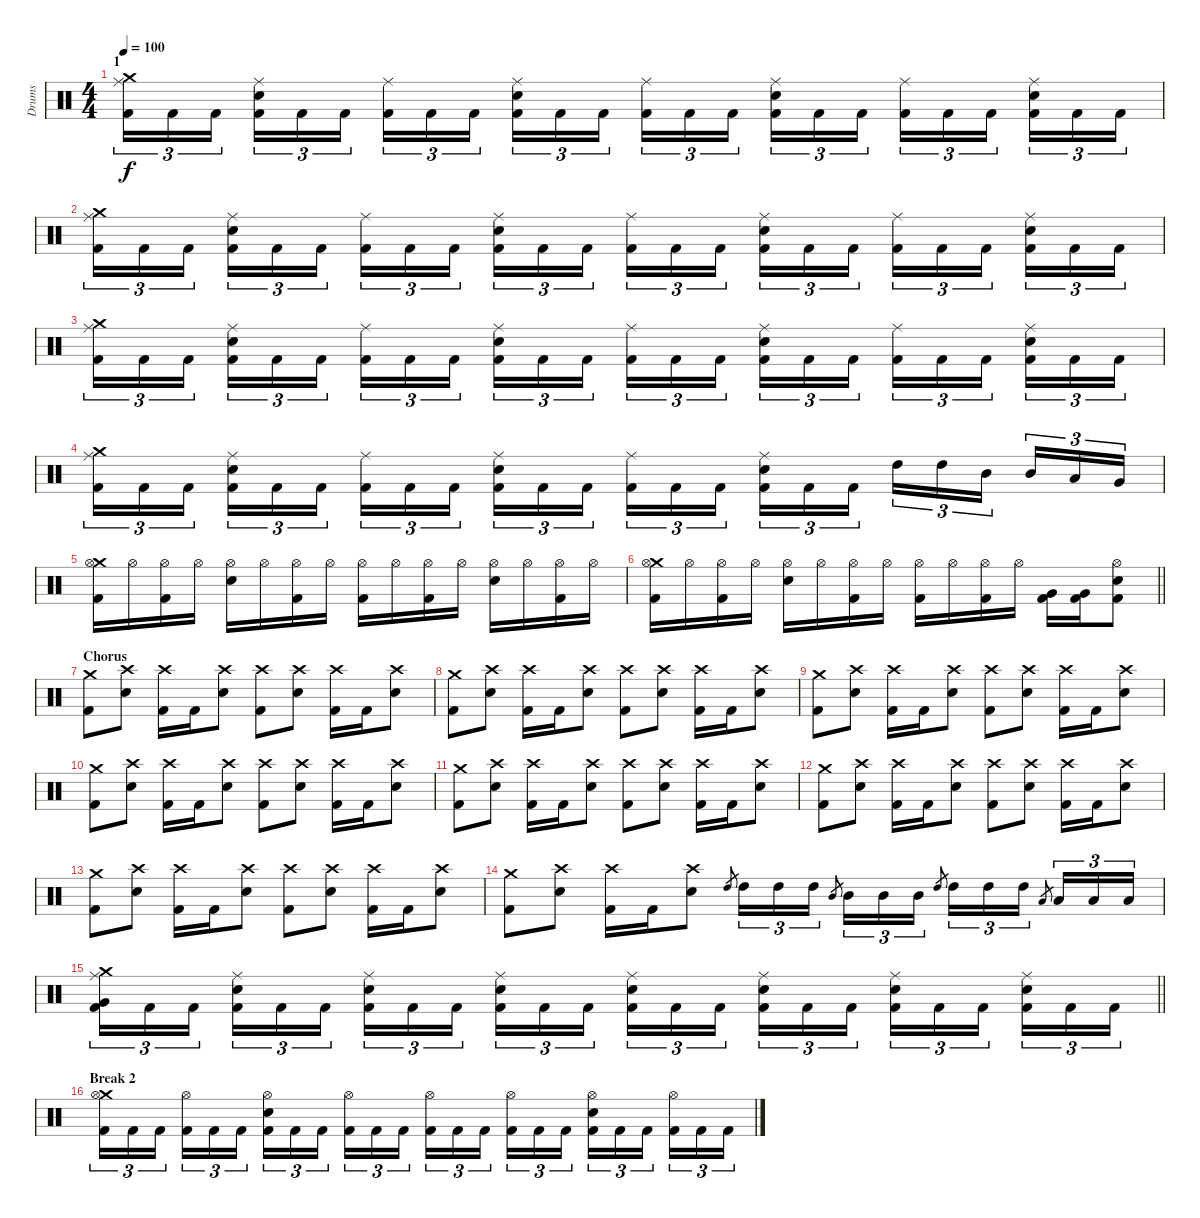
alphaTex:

\track ("Drums" "Drums") {instrument percussion}
\staff {score}
\articulation defaults
\ts (4 4)
\section ("" "1")
\tempo 100
\clef neutral
\ks c
("Crash medium (hit)" "Ride (middle)" "Kick (hit) 2").16{tu (3 2) dy f} "Kick (hit) 2".16{tu (3 2)} "Kick (hit) 2".16{tu (3 2) beam splitsecondary} ("Ride (middle)" "Electric Snare (hit)" "Kick (hit) 2").16{tu (3 2)} "Kick (hit) 2".16{tu (3 2)} "Kick (hit) 2".16{tu (3 2)} ("Ride (middle)" "Kick (hit) 2").16{tu (3 2)} "Kick (hit) 2".16{tu (3 2)} "Kick (hit) 2".16{tu (3 2) beam splitsecondary} ("Ride (middle)" "Electric Snare (hit)" "Kick (hit) 2").16{tu (3 2)} "Kick (hit) 2".16{tu (3 2)} "Kick (hit) 2".16{tu (3 2)} ("Ride (middle)" "Kick (hit) 2").16{tu (3 2)} "Kick (hit) 2".16{tu (3 2)} "Kick (hit) 2".16{tu (3 2) beam splitsecondary} ("Ride (middle)" "Electric Snare (hit)" "Kick (hit) 2").16{tu (3 2)} "Kick (hit) 2".16{tu (3 2)} "Kick (hit) 2".16{tu (3 2)} ("Ride (middle)" "Kick (hit) 2").16{tu (3 2)} "Kick (hit) 2".16{tu (3 2)} "Kick (hit) 2".16{tu (3 2) beam splitsecondary} ("Ride (middle)" "Electric Snare (hit)" "Kick (hit) 2").16{tu (3 2)} "Kick (hit) 2".16{tu (3 2)} "Kick (hit) 2".16{tu (3 2)} |
("Crash medium (hit)" "Ride (middle)" "Kick (hit) 2").16{tu (3 2)} "Kick (hit) 2".16{tu (3 2)} "Kick (hit) 2".16{tu (3 2) beam splitsecondary} ("Ride (middle)" "Electric Snare (hit)" "Kick (hit) 2").16{tu (3 2)} "Kick (hit) 2".16{tu (3 2)} "Kick (hit) 2".16{tu (3 2)} ("Ride (middle)" "Kick (hit) 2").16{tu (3 2)} "Kick (hit) 2".16{tu (3 2)} "Kick (hit) 2".16{tu (3 2) beam splitsecondary} ("Ride (middle)" "Electric Snare (hit)" "Kick (hit) 2").16{tu (3 2)} "Kick (hit) 2".16{tu (3 2)} "Kick (hit) 2".16{tu (3 2)} ("Ride (middle)" "Kick (hit) 2").16{tu (3 2)} "Kick (hit) 2".16{tu (3 2)} "Kick (hit) 2".16{tu (3 2) beam splitsecondary} ("Ride (middle)" "Electric Snare (hit)" "Kick (hit) 2").16{tu (3 2)} "Kick (hit) 2".16{tu (3 2)} "Kick (hit) 2".16{tu (3 2)} ("Ride (middle)" "Kick (hit) 2").16{tu (3 2)} "Kick (hit) 2".16{tu (3 2)} "Kick (hit) 2".16{tu (3 2) beam splitsecondary} ("Ride (middle)" "Electric Snare (hit)" "Kick (hit) 2").16{tu (3 2)} "Kick (hit) 2".16{tu (3 2)} "Kick (hit) 2".16{tu (3 2)} |
("Crash medium (hit)" "Ride (middle)" "Kick (hit) 2").16{tu (3 2)} "Kick (hit) 2".16{tu (3 2)} "Kick (hit) 2".16{tu (3 2) beam splitsecondary} ("Ride (middle)" "Electric Snare (hit)" "Kick (hit) 2").16{tu (3 2)} "Kick (hit) 2".16{tu (3 2)} "Kick (hit) 2".16{tu (3 2)} ("Ride (middle)" "Kick (hit) 2").16{tu (3 2)} "Kick (hit) 2".16{tu (3 2)} "Kick (hit) 2".16{tu (3 2) beam splitsecondary} ("Ride (middle)" "Electric Snare (hit)" "Kick (hit) 2").16{tu (3 2)} "Kick (hit) 2".16{tu (3 2)} "Kick (hit) 2".16{tu (3 2)} ("Ride (middle)" "Kick (hit) 2").16{tu (3 2)} "Kick (hit) 2".16{tu (3 2)} "Kick (hit) 2".16{tu (3 2) beam splitsecondary} ("Ride (middle)" "Electric Snare (hit)" "Kick (hit) 2").16{tu (3 2)} "Kick (hit) 2".16{tu (3 2)} "Kick (hit) 2".16{tu (3 2)} ("Ride (middle)" "Kick (hit) 2").16{tu (3 2)} "Kick (hit) 2".16{tu (3 2)} "Kick (hit) 2".16{tu (3 2) beam splitsecondary} ("Ride (middle)" "Electric Snare (hit)" "Kick (hit) 2").16{tu (3 2)} "Kick (hit) 2".16{tu (3 2)} "Kick (hit) 2".16{tu (3 2)} |
("Crash medium (hit)" "Ride (middle)" "Kick (hit) 2").16{tu (3 2)} "Kick (hit) 2".16{tu (3 2)} "Kick (hit) 2".16{tu (3 2) beam splitsecondary} ("Ride (middle)" "Electric Snare (hit)" "Kick (hit) 2").16{tu (3 2)} "Kick (hit) 2".16{tu (3 2)} "Kick (hit) 2".16{tu (3 2)} ("Ride (middle)" "Kick (hit) 2").16{tu (3 2)} "Kick (hit) 2".16{tu (3 2)} "Kick (hit) 2".16{tu (3 2) beam splitsecondary} ("Ride (middle)" "Electric Snare (hit)" "Kick (hit) 2").16{tu (3 2)} "Kick (hit) 2".16{tu (3 2)} "Kick (hit) 2".16{tu (3 2)} ("Ride (middle)" "Kick (hit) 2").16{tu (3 2)} "Kick (hit) 2".16{tu (3 2)} "Kick (hit) 2".16{tu (3 2) beam splitsecondary} ("Ride (middle)" "Electric Snare (hit)" "Kick (hit) 2").16{tu (3 2)} "Kick (hit) 2".16{tu (3 2)} "Kick (hit) 2".16{tu (3 2)} "High Tom (hit)".16{tu (3 2)} "High Tom (hit)".16{tu (3 2)} "Mid Tom (hit)".16{tu (3 2) beam splitsecondary} "Mid Tom (hit)".16{tu (3 2)} "Low Tom (hit)".16{tu (3 2)} "Very Low Tom (hit)".16{tu (3 2)} |
("Crash medium (hit)" "Hi-Hat (open)" "Kick (hit) 2").16 "Hi-Hat (open)".16 ("Hi-Hat (open)" "Kick (hit) 2").16 "Hi-Hat (open)".16 ("Hi-Hat (open)" "Electric Snare (hit)").16 "Hi-Hat (open)".16 ("Hi-Hat (open)" "Kick (hit) 2").16 "Hi-Hat (open)".16 ("Hi-Hat (open)" "Kick (hit) 2").16 "Hi-Hat (open)".16 ("Hi-Hat (open)" "Kick (hit) 2").16 "Hi-Hat (open)".16 ("Hi-Hat (open)" "Electric Snare (hit)").16 "Hi-Hat (open)".16 ("Hi-Hat (open)" "Kick (hit) 2").16 "Hi-Hat (open)".16 |
\barLineRight lightlight
("Crash medium (hit)" "Hi-Hat (open)" "Kick (hit) 2").16 "Hi-Hat (open)".16 ("Hi-Hat (open)" "Kick (hit) 2").16 "Hi-Hat (open)".16 ("Hi-Hat (open)" "Electric Snare (hit)").16 "Hi-Hat (open)".16 ("Hi-Hat (open)" "Kick (hit) 2").16 "Hi-Hat (open)".16 ("Hi-Hat (open)" "Kick (hit) 2").16 "Hi-Hat (open)".16 ("Hi-Hat (open)" "Kick (hit) 2").16 "Hi-Hat (open)".16 ("Very Low Tom (hit)" "Kick (hit) 2").16 ("Very Low Tom (hit)" "Kick (hit) 2").16 ("Hi-Hat (open)" "Electric Snare (hit)" "Kick (hit) 2").8 |
\section ("" "Chorus")
("Crash medium (hit)" "Kick (hit) 2").8 ("Crash high (hit)" "Electric Snare (hit)").8 ("Crash high (hit)" "Kick (hit) 2").16 "Kick (hit) 2".16 ("Crash high (hit)" "Electric Snare (hit)").8 ("Crash high (hit)" "Kick (hit) 2").8 ("Crash high (hit)" "Electric Snare (hit)").8 ("Crash high (hit)" "Kick (hit) 2").16 "Kick (hit) 2".16 ("Crash high (hit)" "Electric Snare (hit)").8 |
("Crash medium (hit)" "Kick (hit) 2").8 ("Crash high (hit)" "Electric Snare (hit)").8 ("Crash high (hit)" "Kick (hit) 2").16 "Kick (hit) 2".16 ("Crash high (hit)" "Electric Snare (hit)").8 ("Crash high (hit)" "Kick (hit) 2").8 ("Crash high (hit)" "Electric Snare (hit)").8 ("Crash high (hit)" "Kick (hit) 2").16 "Kick (hit) 2".16 ("Crash high (hit)" "Electric Snare (hit)").8 |
("Crash medium (hit)" "Kick (hit) 2").8 ("Crash high (hit)" "Electric Snare (hit)").8 ("Crash high (hit)" "Kick (hit) 2").16 "Kick (hit) 2".16 ("Crash high (hit)" "Electric Snare (hit)").8 ("Crash high (hit)" "Kick (hit) 2").8 ("Crash high (hit)" "Electric Snare (hit)").8 ("Crash high (hit)" "Kick (hit) 2").16 "Kick (hit) 2".16 ("Crash high (hit)" "Electric Snare (hit)").8 |
("Crash medium (hit)" "Kick (hit) 2").8 ("Crash high (hit)" "Electric Snare (hit)").8 ("Crash high (hit)" "Kick (hit) 2").16 "Kick (hit) 2".16 ("Crash high (hit)" "Electric Snare (hit)").8 ("Crash high (hit)" "Kick (hit) 2").8 ("Crash high (hit)" "Electric Snare (hit)").8 ("Crash high (hit)" "Kick (hit) 2").16 "Kick (hit) 2".16 ("Crash high (hit)" "Electric Snare (hit)").8 |
("Crash medium (hit)" "Kick (hit) 2").8 ("Crash high (hit)" "Electric Snare (hit)").8 ("Crash high (hit)" "Kick (hit) 2").16 "Kick (hit) 2".16 ("Crash high (hit)" "Electric Snare (hit)").8 ("Crash high (hit)" "Kick (hit) 2").8 ("Crash high (hit)" "Electric Snare (hit)").8 ("Crash high (hit)" "Kick (hit) 2").16 "Kick (hit) 2".16 ("Crash high (hit)" "Electric Snare (hit)").8 |
("Crash medium (hit)" "Kick (hit) 2").8 ("Crash high (hit)" "Electric Snare (hit)").8 ("Crash high (hit)" "Kick (hit) 2").16 "Kick (hit) 2".16 ("Crash high (hit)" "Electric Snare (hit)").8 ("Crash high (hit)" "Kick (hit) 2").8 ("Crash high (hit)" "Electric Snare (hit)").8 ("Crash high (hit)" "Kick (hit) 2").16 "Kick (hit) 2".16 ("Crash high (hit)" "Electric Snare (hit)").8 |
("Crash medium (hit)" "Kick (hit) 2").8 ("Crash high (hit)" "Electric Snare (hit)").8 ("Crash high (hit)" "Kick (hit) 2").16 "Kick (hit) 2".16 ("Crash high (hit)" "Electric Snare (hit)").8 ("Crash high (hit)" "Kick (hit) 2").8 ("Crash high (hit)" "Electric Snare (hit)").8 ("Crash high (hit)" "Kick (hit) 2").16 "Kick (hit) 2".16 ("Crash high (hit)" "Electric Snare (hit)").8 |
("Crash medium (hit)" "Kick (hit) 2").8 ("Crash high (hit)" "Electric Snare (hit)").8 ("Crash high (hit)" "Kick (hit) 2").16 "Kick (hit) 2".16 ("Crash high (hit)" "Electric Snare (hit)").8 "High Tom (hit)".8{gr} "High Tom (hit)".16{tu (3 2)} "High Tom (hit)".16{tu (3 2)} "High Tom (hit)".16{tu (3 2)} "Mid Tom (hit)".8{gr beam splitsecondary} "Mid Tom (hit)".16{tu (3 2)} "Mid Tom (hit)".16{tu (3 2)} "Mid Tom (hit)".16{tu (3 2)} "High Tom (hit)".8{gr} "High Tom (hit)".16{tu (3 2)} "High Tom (hit)".16{tu (3 2)} "High Tom (hit)".16{tu (3 2)} "Low Tom (hit)".8{gr beam splitsecondary} "Low Tom (hit)".16{tu (3 2)} "Low Tom (hit)".16{tu (3 2)} "Low Tom (hit)".16{tu (3 2)} |
\barLineRight lightlight
("Crash medium (hit)" "Ride (middle)" "Very Low Tom (hit)" "Kick (hit) 2").16{tu (3 2)} "Kick (hit) 2".16{tu (3 2)} "Kick (hit) 2".16{tu (3 2) beam splitsecondary} ("Ride (middle)" "Electric Snare (hit)" "Kick (hit) 2").16{tu (3 2)} "Kick (hit) 2".16{tu (3 2)} "Kick (hit) 2".16{tu (3 2)} ("Ride (middle)" "Electric Snare (hit)" "Kick (hit) 2").16{tu (3 2)} "Kick (hit) 2".16{tu (3 2)} "Kick (hit) 2".16{tu (3 2) beam splitsecondary} ("Ride (middle)" "Electric Snare (hit)" "Kick (hit) 2").16{tu (3 2)} "Kick (hit) 2".16{tu (3 2)} "Kick (hit) 2".16{tu (3 2)} ("Ride (middle)" "Electric Snare (hit)" "Kick (hit) 2").16{tu (3 2)} "Kick (hit) 2".16{tu (3 2)} "Kick (hit) 2".16{tu (3 2) beam splitsecondary} ("Ride (middle)" "Electric Snare (hit)" "Kick (hit) 2").16{tu (3 2)} "Kick (hit) 2".16{tu (3 2)} "Kick (hit) 2".16{tu (3 2)} ("Ride (middle)" "Electric Snare (hit)" "Kick (hit) 2").16{tu (3 2)} "Kick (hit) 2".16{tu (3 2)} "Kick (hit) 2".16{tu (3 2) beam splitsecondary} ("Ride (middle)" "Electric Snare (hit)" "Kick (hit) 2").16{tu (3 2)} "Kick (hit) 2".16{tu (3 2)} "Kick (hit) 2".16{tu (3 2)} |
\section ("" "Break 2")
("Crash medium (hit)" "Hi-Hat (open)" "Kick (hit) 2").16{tu (3 2)} "Kick (hit) 2".16{tu (3 2)} "Kick (hit) 2".16{tu (3 2) beam splitsecondary} ("Hi-Hat (open)" "Kick (hit) 2").16{tu (3 2)} "Kick (hit) 2".16{tu (3 2)} "Kick (hit) 2".16{tu (3 2)} ("Hi-Hat (open)" "Electric Snare (hit)" "Kick (hit) 2").16{tu (3 2)} "Kick (hit) 2".16{tu (3 2)} "Kick (hit) 2".16{tu (3 2) beam splitsecondary} ("Hi-Hat (open)" "Kick (hit) 2").16{tu (3 2)} "Kick (hit) 2".16{tu (3 2)} "Kick (hit) 2".16{tu (3 2)} ("Hi-Hat (open)" "Kick (hit) 2").16{tu (3 2)} "Kick (hit) 2".16{tu (3 2)} "Kick (hit) 2".16{tu (3 2) beam splitsecondary} ("Hi-Hat (open)" "Kick (hit) 2").16{tu (3 2)} "Kick (hit) 2".16{tu (3 2)} "Kick (hit) 2".16{tu (3 2)} ("Hi-Hat (open)" "Electric Snare (hit)" "Kick (hit) 2").16{tu (3 2)} "Kick (hit) 2".16{tu (3 2)} "Kick (hit) 2".16{tu (3 2) beam splitsecondary} ("Hi-Hat (open)" "Kick (hit) 2").16{tu (3 2)} "Kick (hit) 2".16{tu (3 2)} "Kick (hit) 2".16{tu (3 2)}
